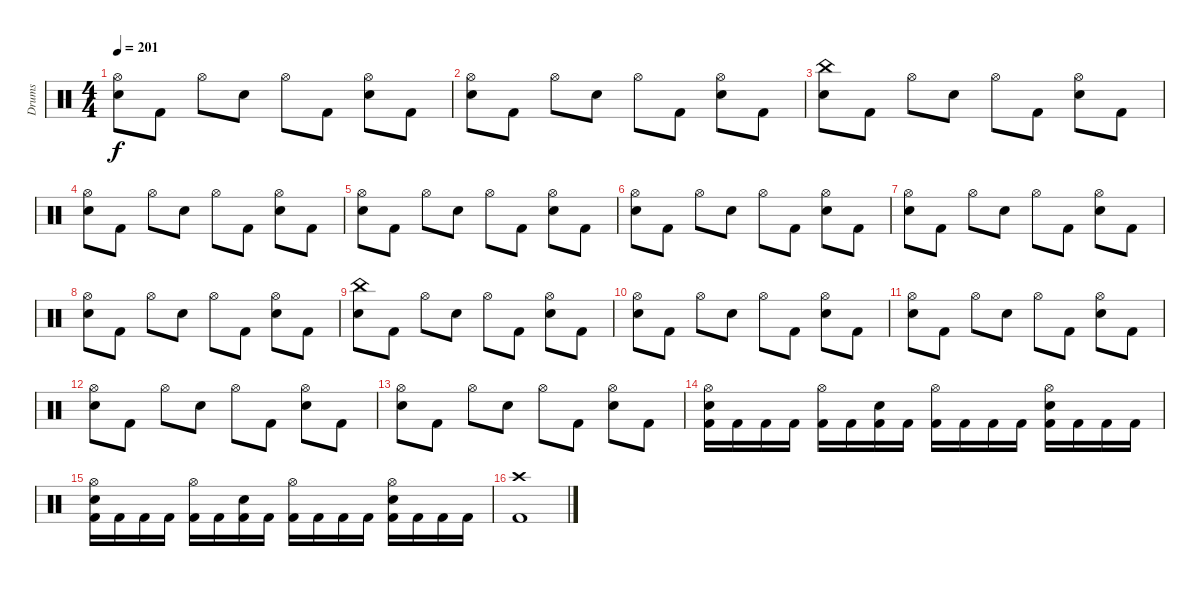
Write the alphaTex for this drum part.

\track ("Drums" "Drums") {instrument percussion}
\staff {score}
\articulation defaults
\ts (4 4)
\tempo 201
\clef neutral
\ks c
("Hi-Hat (open)" "Snare (hit) 2").8{dy f} "Kick (hit) 2".8 "Hi-Hat (open)".8 "Snare (hit) 2".8 "Hi-Hat (open)".8 "Kick (hit) 2".8 ("Hi-Hat (open)" "Snare (hit) 2").8 "Kick (hit) 2".8 |
("Hi-Hat (open)" "Snare (hit) 2").8 "Kick (hit) 2".8 "Hi-Hat (open)".8 "Snare (hit) 2".8 "Hi-Hat (open)".8 "Kick (hit) 2".8 ("Hi-Hat (open)" "Snare (hit) 2").8 "Kick (hit) 2".8 |
("China (hit)" "Snare (hit) 2").8 "Kick (hit) 2".8 "Hi-Hat (open)".8 "Snare (hit) 2".8 "Hi-Hat (open)".8 "Kick (hit) 2".8 ("Hi-Hat (open)" "Snare (hit) 2").8 "Kick (hit) 2".8 |
("Hi-Hat (open)" "Snare (hit) 2").8 "Kick (hit) 2".8 "Hi-Hat (open)".8 "Snare (hit) 2".8 "Hi-Hat (open)".8 "Kick (hit) 2".8 ("Hi-Hat (open)" "Snare (hit) 2").8 "Kick (hit) 2".8 |
("Hi-Hat (open)" "Snare (hit) 2").8 "Kick (hit) 2".8 "Hi-Hat (open)".8 "Snare (hit) 2".8 "Hi-Hat (open)".8 "Kick (hit) 2".8 ("Hi-Hat (open)" "Snare (hit) 2").8 "Kick (hit) 2".8 |
("Hi-Hat (open)" "Snare (hit) 2").8 "Kick (hit) 2".8 "Hi-Hat (open)".8 "Snare (hit) 2".8 "Hi-Hat (open)".8 "Kick (hit) 2".8 ("Hi-Hat (open)" "Snare (hit) 2").8 "Kick (hit) 2".8 |
("Hi-Hat (open)" "Snare (hit) 2").8 "Kick (hit) 2".8 "Hi-Hat (open)".8 "Snare (hit) 2".8 "Hi-Hat (open)".8 "Kick (hit) 2".8 ("Hi-Hat (open)" "Snare (hit) 2").8 "Kick (hit) 2".8 |
("Hi-Hat (open)" "Snare (hit) 2").8 "Kick (hit) 2".8 "Hi-Hat (open)".8 "Snare (hit) 2".8 "Hi-Hat (open)".8 "Kick (hit) 2".8 ("Hi-Hat (open)" "Snare (hit) 2").8 "Kick (hit) 2".8 |
("China (hit)" "Snare (hit) 2").8 "Kick (hit) 2".8 "Hi-Hat (open)".8 "Snare (hit) 2".8 "Hi-Hat (open)".8 "Kick (hit) 2".8 ("Hi-Hat (open)" "Snare (hit) 2").8 "Kick (hit) 2".8 |
("Hi-Hat (open)" "Snare (hit) 2").8 "Kick (hit) 2".8 "Hi-Hat (open)".8 "Snare (hit) 2".8 "Hi-Hat (open)".8 "Kick (hit) 2".8 ("Hi-Hat (open)" "Snare (hit) 2").8 "Kick (hit) 2".8 |
("Hi-Hat (open)" "Snare (hit) 2").8 "Kick (hit) 2".8 "Hi-Hat (open)".8 "Snare (hit) 2".8 "Hi-Hat (open)".8 "Kick (hit) 2".8 ("Hi-Hat (open)" "Snare (hit) 2").8 "Kick (hit) 2".8 |
("Hi-Hat (open)" "Snare (hit) 2").8 "Kick (hit) 2".8 "Hi-Hat (open)".8 "Snare (hit) 2".8 "Hi-Hat (open)".8 "Kick (hit) 2".8 ("Hi-Hat (open)" "Snare (hit) 2").8 "Kick (hit) 2".8 |
("Hi-Hat (open)" "Snare (hit) 2").8 "Kick (hit) 2".8 "Hi-Hat (open)".8 "Snare (hit) 2".8 "Hi-Hat (open)".8 "Kick (hit) 2".8 ("Hi-Hat (open)" "Snare (hit) 2").8 "Kick (hit) 2".8 |
("Hi-Hat (open)" "Snare (hit) 2" "Kick (hit) 2").16 "Kick (hit) 2".16 "Kick (hit) 2".16 "Kick (hit) 2".16 ("Hi-Hat (open)" "Kick (hit) 2").16 "Kick (hit) 2".16 ("Snare (hit) 2" "Kick (hit) 2").16 "Kick (hit) 2".16 ("Hi-Hat (open)" "Kick (hit) 2").16 "Kick (hit) 2".16 "Kick (hit) 2".16 "Kick (hit) 2".16 ("Hi-Hat (open)" "Snare (hit) 2" "Kick (hit) 2").16 "Kick (hit) 2".16 "Kick (hit) 2".16 "Kick (hit) 2".16 |
("Hi-Hat (open)" "Snare (hit) 2" "Kick (hit) 2").16 "Kick (hit) 2".16 "Kick (hit) 2".16 "Kick (hit) 2".16 ("Hi-Hat (open)" "Kick (hit) 2").16 "Kick (hit) 2".16 ("Snare (hit) 2" "Kick (hit) 2").16 "Kick (hit) 2".16 ("Hi-Hat (open)" "Kick (hit) 2").16 "Kick (hit) 2".16 "Kick (hit) 2".16 "Kick (hit) 2".16 ("Hi-Hat (open)" "Snare (hit) 2" "Kick (hit) 2").16 "Kick (hit) 2".16 "Kick (hit) 2".16 "Kick (hit) 2".16 |
("Crash high (hit)" "Kick (hit) 2").1
